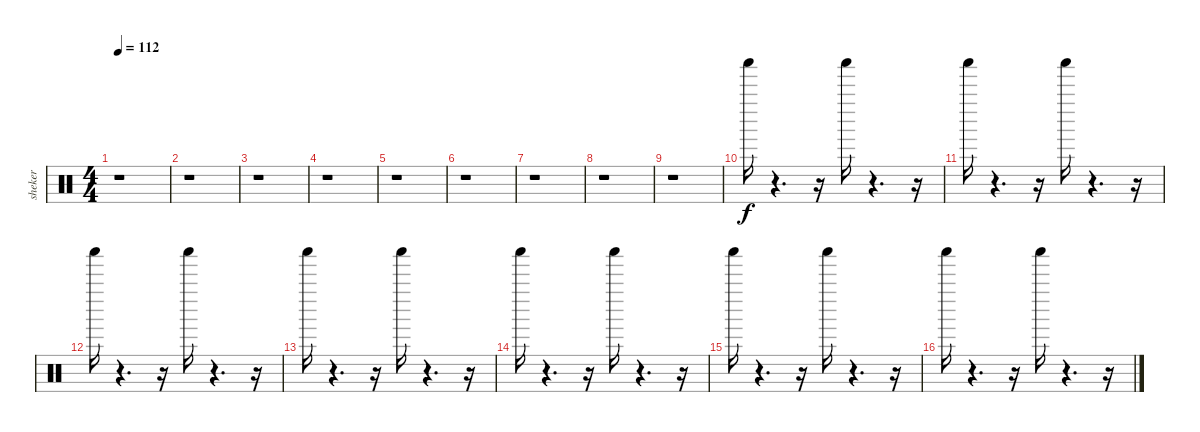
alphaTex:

\track ("sheker" "sheker") {instrument percussion}
\staff {score}
\articulation defaults
\ts (4 4)
\tempo 112
\clef neutral
\ks c
r.1{dy f} |
r.1 |
r.1 |
r.1 |
r.1 |
r.1 |
r.1 |
r.1 |
r.1 |
"Shaker (hit)".16 r.4{d} r.16 "Shaker (hit)".16 r.4{d} r.16 |
"Shaker (hit)".16 r.4{d} r.16 "Shaker (hit)".16 r.4{d} r.16 |
"Shaker (hit)".16 r.4{d} r.16 "Shaker (hit)".16 r.4{d} r.16 |
"Shaker (hit)".16 r.4{d} r.16 "Shaker (hit)".16 r.4{d} r.16 |
"Shaker (hit)".16 r.4{d} r.16 "Shaker (hit)".16 r.4{d} r.16 |
"Shaker (hit)".16 r.4{d} r.16 "Shaker (hit)".16 r.4{d} r.16 |
"Shaker (hit)".16 r.4{d} r.16 "Shaker (hit)".16 r.4{d} r.16
